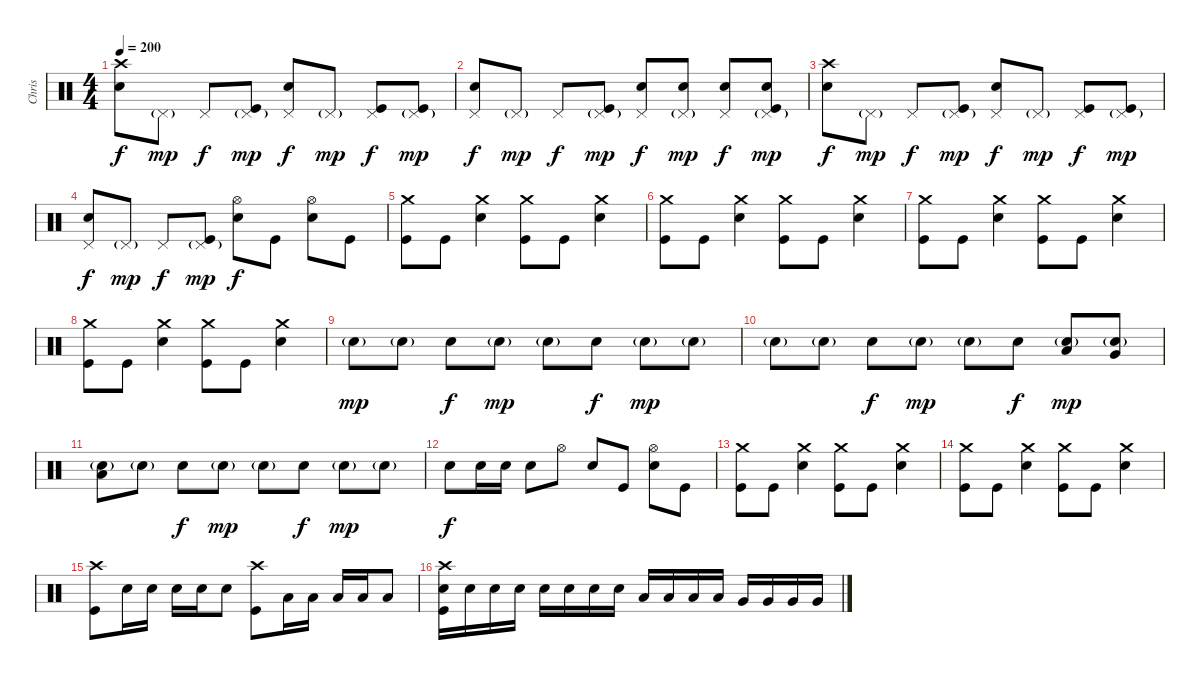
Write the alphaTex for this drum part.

\track ("Chris" "Chris") {instrument percussion}
\staff {score}
\articulation defaults
\ts (4 4)
\tempo 200
\clef neutral
\ks c
("Crash high (hit)" "Electric Snare (hit)").8{dy f} "Pedal Hi-Hat (hit)"{g}.8{dy mp} "Pedal Hi-Hat (hit)".8{dy f} ("Pedal Hi-Hat (hit)"{g} "Kick (hit)").8{dy mp} ("Pedal Hi-Hat (hit)" "Electric Snare (hit)").8{dy f} "Pedal Hi-Hat (hit)"{g}.8{dy mp} ("Pedal Hi-Hat (hit)" "Kick (hit)").8{dy f} ("Pedal Hi-Hat (hit)"{g} "Kick (hit)").8{dy mp} |
("Pedal Hi-Hat (hit)" "Electric Snare (hit)").8{dy f} "Pedal Hi-Hat (hit)"{g}.8{dy mp} "Pedal Hi-Hat (hit)".8{dy f} ("Pedal Hi-Hat (hit)"{g} "Kick (hit)").8{dy mp} ("Pedal Hi-Hat (hit)" "Electric Snare (hit)").8{dy f} ("Pedal Hi-Hat (hit)"{g} "Electric Snare (hit)").8{dy mp} ("Pedal Hi-Hat (hit)" "Electric Snare (hit)").8{dy f} ("Pedal Hi-Hat (hit)"{g} "Electric Snare (hit)" "Kick (hit)").8{dy mp} |
("Crash high (hit)" "Electric Snare (hit)").8{dy f} "Pedal Hi-Hat (hit)"{g}.8{dy mp} "Pedal Hi-Hat (hit)".8{dy f} ("Pedal Hi-Hat (hit)"{g} "Kick (hit)").8{dy mp} ("Pedal Hi-Hat (hit)" "Electric Snare (hit)").8{dy f} "Pedal Hi-Hat (hit)"{g}.8{dy mp} ("Pedal Hi-Hat (hit)" "Kick (hit)").8{dy f} ("Pedal Hi-Hat (hit)"{g} "Kick (hit)").8{dy mp} |
("Pedal Hi-Hat (hit)" "Electric Snare (hit)").8{dy f} "Pedal Hi-Hat (hit)"{g}.8{dy mp} "Pedal Hi-Hat (hit)".8{dy f} ("Pedal Hi-Hat (hit)"{g} "Kick (hit)").8{dy mp} ("Hi-Hat (open)" "Electric Snare (hit)").8{dy f} "Kick (hit)".8 ("Hi-Hat (open)" "Electric Snare (hit)").8 "Kick (hit)".8 |
("Crash medium (hit)" "Kick (hit)").8 "Kick (hit)".8 ("Crash medium (hit)" "Electric Snare (hit)").4 ("Crash medium (hit)" "Kick (hit)").8 "Kick (hit)".8 ("Crash medium (hit)" "Electric Snare (hit)").4 |
("Crash medium (hit)" "Kick (hit)").8 "Kick (hit)".8 ("Crash medium (hit)" "Electric Snare (hit)").4 ("Crash medium (hit)" "Kick (hit)").8 "Kick (hit)".8 ("Crash medium (hit)" "Electric Snare (hit)").4 |
("Crash medium (hit)" "Kick (hit)").8 "Kick (hit)".8 ("Crash medium (hit)" "Electric Snare (hit)").4 ("Crash medium (hit)" "Kick (hit)").8 "Kick (hit)".8 ("Crash medium (hit)" "Electric Snare (hit)").4 |
("Crash medium (hit)" "Kick (hit)").8 "Kick (hit)".8 ("Crash medium (hit)" "Electric Snare (hit)").4 ("Crash medium (hit)" "Kick (hit)").8 "Kick (hit)".8 ("Crash medium (hit)" "Electric Snare (hit)").4 |
"Electric Snare (hit)"{g}.8{dy mp} "Electric Snare (hit)"{g}.8 "Electric Snare (hit)".8{dy f} "Electric Snare (hit)"{g}.8{dy mp} "Electric Snare (hit)"{g}.8 "Electric Snare (hit)".8{dy f} "Electric Snare (hit)"{g}.8{dy mp} "Electric Snare (hit)"{g}.8 |
"Electric Snare (hit)"{g}.8 "Electric Snare (hit)"{g}.8 "Electric Snare (hit)".8{dy f} "Electric Snare (hit)"{g}.8{dy mp} "Electric Snare (hit)"{g}.8 "Electric Snare (hit)".8{dy f} ("Low Tom (hit)" "Electric Snare (hit)"{g}).8{dy mp} ("Very Low Tom (hit)" "Electric Snare (hit)"{g}).8 |
("Low Floor Tom (hit)" "Electric Snare (hit)"{g}).8 "Electric Snare (hit)"{g}.8 "Electric Snare (hit)".8{dy f} "Electric Snare (hit)"{g}.8{dy mp} "Electric Snare (hit)"{g}.8 "Electric Snare (hit)".8{dy f} "Electric Snare (hit)"{g}.8{dy mp} "Electric Snare (hit)"{g}.8 |
"Electric Snare (hit)".8{dy f} "Electric Snare (hit)".16 "Electric Snare (hit)".16 "Electric Snare (hit)".8 "Hi-Hat (open)".8 "Electric Snare (hit)".8 "Kick (hit)".8 ("Hi-Hat (open)" "Electric Snare (hit)").8 "Kick (hit)".8 |
("Crash medium (hit)" "Kick (hit)").8 "Kick (hit)".8 ("Crash medium (hit)" "Electric Snare (hit)").4 ("Crash medium (hit)" "Kick (hit)").8 "Kick (hit)".8 ("Crash medium (hit)" "Electric Snare (hit)").4 |
("Crash medium (hit)" "Kick (hit)").8 "Kick (hit)".8 ("Crash medium (hit)" "Electric Snare (hit)").4 ("Crash medium (hit)" "Kick (hit)").8 "Kick (hit)".8 ("Crash medium (hit)" "Electric Snare (hit)").4 |
("Crash high (hit)" "Kick (hit)").8 "Electric Snare (hit)".16 "Electric Snare (hit)".16 "Electric Snare (hit)".16 "Electric Snare (hit)".16 "Electric Snare (hit)".8 ("Crash high (hit)" "Kick (hit)").8 "Low Tom (hit)".16 "Low Tom (hit)".16 "Low Tom (hit)".16 "Low Tom (hit)".16 "Low Tom (hit)".8 |
("Crash high (hit)" "Electric Snare (hit)" "Kick (hit)").16 "Electric Snare (hit)".16 "Electric Snare (hit)".16 "Electric Snare (hit)".16 "Electric Snare (hit)".16 "Electric Snare (hit)".16 "Electric Snare (hit)".16 "Electric Snare (hit)".16 "Low Tom (hit)".16 "Low Tom (hit)".16 "Low Tom (hit)".16 "Low Tom (hit)".16 "Very Low Tom (hit)".16 "Very Low Tom (hit)".16 "Very Low Tom (hit)".16 "Very Low Tom (hit)".16
